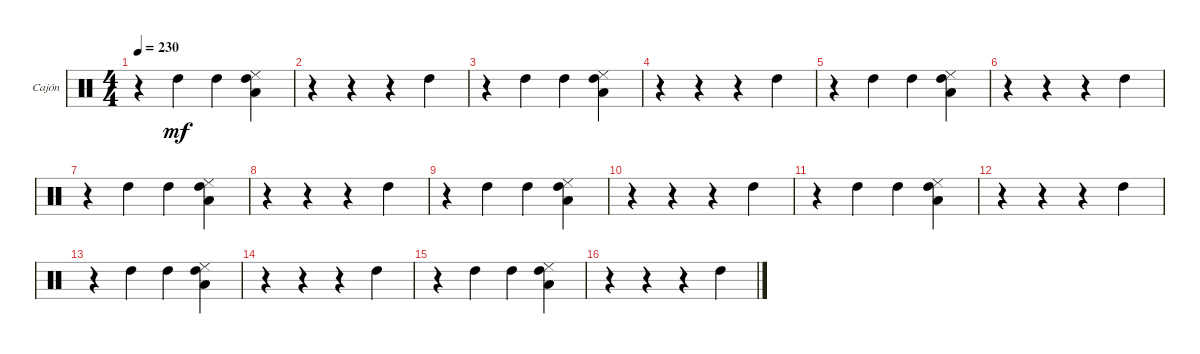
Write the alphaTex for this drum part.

\defaultSystemsLayout 4
\bracketExtendMode groupsimilarinstruments
\firstSystemTrackNameOrientation horizontal
\otherSystemsTrackNameOrientation horizontal
\track ("Cajón (Ira)" "Cajón") {instrument percussion}
\staff {score}
\articulation defaults
\ts (4 4)
\tempo 230
\clef neutral
\scale
0.333333
\ks c
r.4{dy mf} "High Tom (hit)".4 "High Tom (hit)".4 ("High Tom (hit)" "Low Tom (hit)" "Cowbell low (tip)").4 |
\scale
0.333333 r.4 r.4 r.4 "High Tom (hit)".4 |
\scale
0.333333 r.4 "High Tom (hit)".4 "High Tom (hit)".4 ("High Tom (hit)" "Low Tom (hit)" "Cowbell low (tip)").4 |
\scale
0.333333 r.4 r.4 r.4 "High Tom (hit)".4 |
\scale
0.333333 r.4 "High Tom (hit)".4 "High Tom (hit)".4 ("High Tom (hit)" "Low Tom (hit)" "Cowbell low (tip)").4 |
\scale
0.333333 r.4 r.4 r.4 "High Tom (hit)".4 |
\scale
0.333333 r.4 "High Tom (hit)".4 "High Tom (hit)".4 ("High Tom (hit)" "Low Tom (hit)" "Cowbell low (tip)").4 |
\scale
0.333333 r.4 r.4 r.4 "High Tom (hit)".4 |
\scale
0.333333 r.4 "High Tom (hit)".4 "High Tom (hit)".4 ("High Tom (hit)" "Low Tom (hit)" "Cowbell low (tip)").4 |
\scale
0.333333 r.4 r.4 r.4 "High Tom (hit)".4 |
\scale
0.333333 r.4 "High Tom (hit)".4 "High Tom (hit)".4 ("High Tom (hit)" "Low Tom (hit)" "Cowbell low (tip)").4 |
\scale
0.333333 r.4 r.4 r.4 "High Tom (hit)".4 |
\scale
0.333333 r.4 "High Tom (hit)".4 "High Tom (hit)".4 ("High Tom (hit)" "Low Tom (hit)" "Cowbell low (tip)").4 |
\scale
0.333333 r.4 r.4 r.4 "High Tom (hit)".4 |
\scale
0.333333 r.4 "High Tom (hit)".4 "High Tom (hit)".4 ("High Tom (hit)" "Low Tom (hit)" "Cowbell low (tip)").4 |
\scale
0.333333 r.4 r.4 r.4 "High Tom (hit)".4
